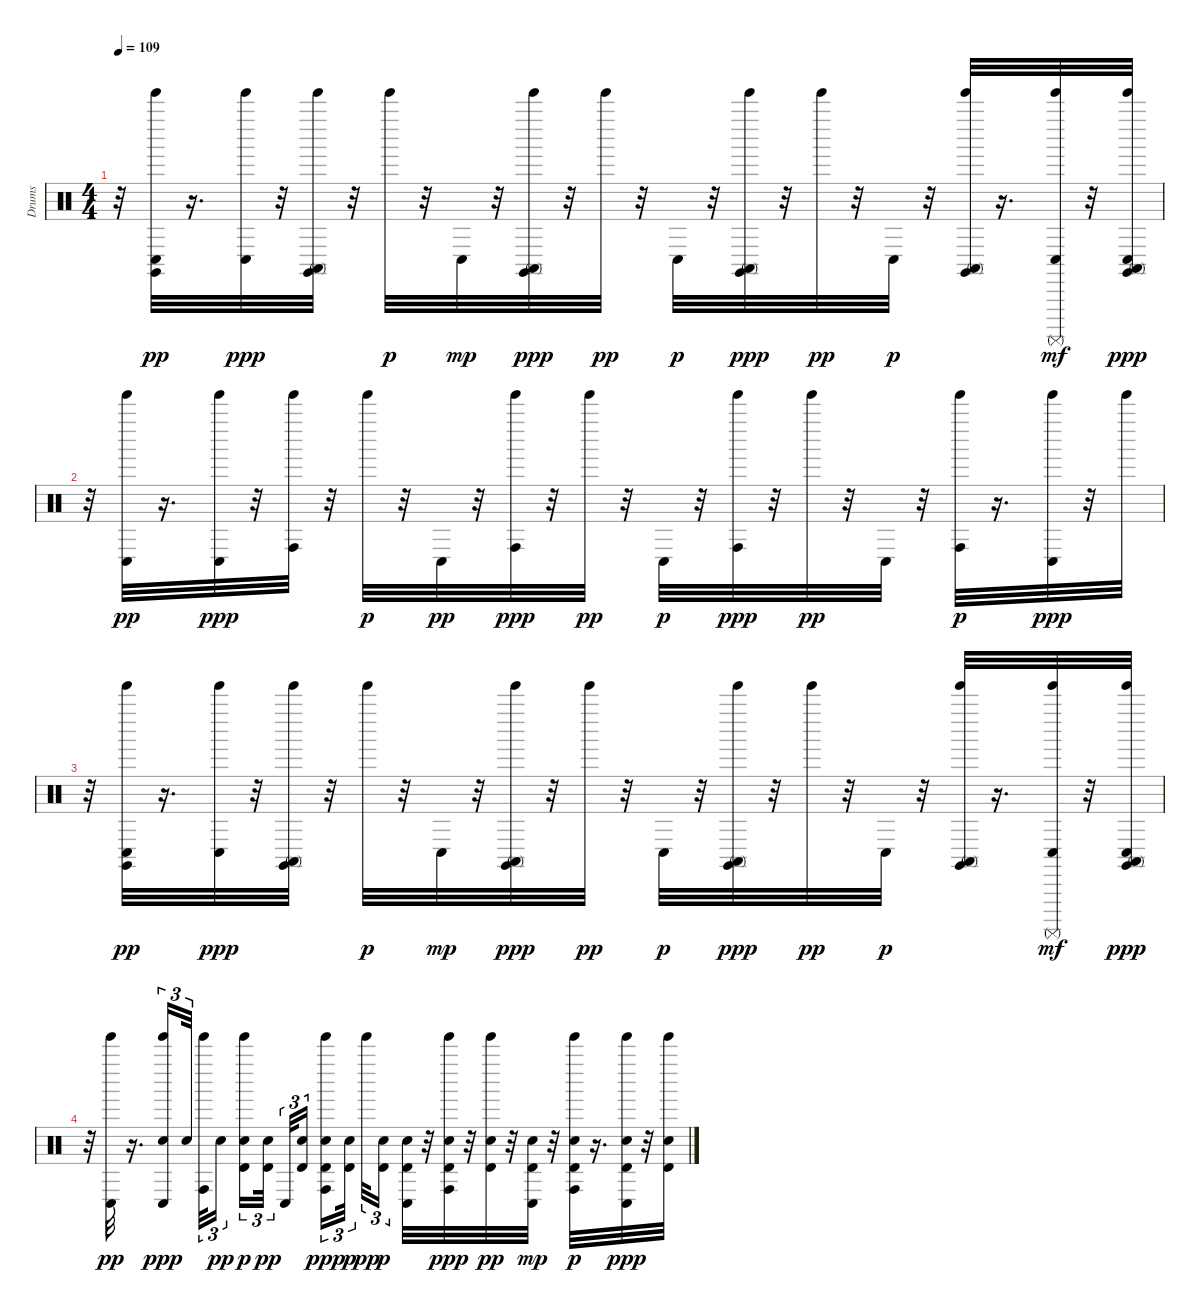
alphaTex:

\track ("Drums" "Drums") {instrument percussion}
\staff {score}
\articulation defaults
\ts (4 4)
\tempo 109
\clef neutral
\ks c
r.32{dy ppp} ("Conga low (hit)" "Claves (hit)" "Tinkle Bell (hit)").32{dy pp} r.16{d} ("Conga low (hit)" "Tinkle Bell (hit)").32{dy ppp} r.32 ("Conga high (mute)" "Claves (hit)" "Tinkle Bell (hit)").32 r.32 "Tinkle Bell (hit)".32{dy p} r.32 "Conga low (hit)".32{dy mp} r.32 ("Conga high (mute)" "Claves (hit)" "Tinkle Bell (hit)").32{dy ppp} r.32 "Tinkle Bell (hit)".32{dy pp} r.32 "Conga low (hit)".32{dy p} r.32 ("Conga high (mute)" "Claves (hit)" "Tinkle Bell (hit)").32{dy ppp} r.32 "Tinkle Bell (hit)".32{dy pp} r.32 "Conga low (hit)".32{dy p} r.32 ("Conga high (mute)" "Claves (hit)" "Tinkle Bell (hit)").32 r.16{d} ("Conga low (hit)" "Tinkle Bell (hit)" "Surdo (mute)").32{dy mf} r.32 ("Conga high (mute)" "Conga low (hit)" "Claves (hit)" "Tinkle Bell (hit)").32{dy ppp} |
r.32 ("Conga low (hit)" "Tinkle Bell (hit)").32{dy pp} r.16{d} ("Conga low (hit)" "Tinkle Bell (hit)").32{dy ppp} r.32 ("Conga high (hit)" "Tinkle Bell (hit)").32 r.32 "Tinkle Bell (hit)".32{dy p} r.32 "Conga low (hit)".32{dy pp} r.32 ("Conga high (hit)" "Tinkle Bell (hit)").32{dy ppp} r.32 "Tinkle Bell (hit)".32{dy pp} r.32 "Conga low (hit)".32{dy p} r.32 ("Conga high (hit)" "Tinkle Bell (hit)").32{dy ppp} r.32 "Tinkle Bell (hit)".32{dy pp} r.32 "Conga low (hit)".32 r.32 ("Conga high (hit)" "Tinkle Bell (hit)").32{dy p} r.16{d} ("Conga low (hit)" "Tinkle Bell (hit)").32{dy ppp} r.32 "Tinkle Bell (hit)".32 |
r.32 ("Conga low (hit)" "Claves (hit)" "Tinkle Bell (hit)").32{dy pp} r.16{d} ("Conga low (hit)" "Tinkle Bell (hit)").32{dy ppp} r.32 ("Conga high (mute)" "Claves (hit)" "Tinkle Bell (hit)").32 r.32 "Tinkle Bell (hit)".32{dy p} r.32 "Conga low (hit)".32{dy mp} r.32 ("Conga high (mute)" "Claves (hit)" "Tinkle Bell (hit)").32{dy ppp} r.32 "Tinkle Bell (hit)".32{dy pp} r.32 "Conga low (hit)".32{dy p} r.32 ("Conga high (mute)" "Claves (hit)" "Tinkle Bell (hit)").32{dy ppp} r.32 "Tinkle Bell (hit)".32{dy pp} r.32 "Conga low (hit)".32{dy p} r.32 ("Conga high (mute)" "Claves (hit)" "Tinkle Bell (hit)").32 r.16{d} ("Conga low (hit)" "Tinkle Bell (hit)" "Surdo (mute)").32{dy mf} r.32 ("Conga high (mute)" "Conga low (hit)" "Claves (hit)" "Tinkle Bell (hit)").32{dy ppp} |
r.32 ("Conga low (hit)" "Tinkle Bell (hit)").32{dy pp} r.16{d} ("Electric Snare (hit)" "Conga low (hit)" "Tinkle Bell (hit)").16{tu (3 2) dy ppp} "Electric Snare (hit)".32{tu (3 2) beam splitsecondary} ("Conga high (hit)" "Tinkle Bell (hit)").32{tu (3 2)} "Electric Snare (hit)".16{tu (3 2) dy pp} ("Electric Snare (hit)" "Timbale high (hit)" "Tinkle Bell (hit)").16{tu (3 2) dy p} ("Electric Snare (hit)" "Timbale high (hit)").32{tu (3 2) dy pp beam splitsecondary} "Conga low (hit)".32{tu (3 2)} ("Electric Snare (hit)" "Timbale high (hit)").16{tu (3 2) beam splitsecondary} ("Electric Snare (hit)" "Conga high (hit)" "Timbale high (hit)" "Tinkle Bell (hit)").16{tu (3 2) dy ppp} ("Electric Snare (hit)" "Timbale high (hit)").32{tu (3 2) dy p beam splitsecondary} "Tinkle Bell (hit)".32{tu (3 2) dy pp} ("Electric Snare (hit)" "Timbale high (hit)").16{tu (3 2) dy p} ("Electric Snare (hit)" "Conga low (hit)" "Timbale high (hit)").32 r.32 ("Electric Snare (hit)" "Conga high (hit)" "Timbale high (hit)" "Tinkle Bell (hit)").32{dy ppp} r.32 ("Electric Snare (hit)" "Timbale high (hit)" "Tinkle Bell (hit)").32{dy pp} r.32 ("Electric Snare (hit)" "Conga low (hit)" "Timbale high (hit)").32{dy mp} r.32 ("Electric Snare (hit)" "Conga high (hit)" "Timbale high (hit)" "Tinkle Bell (hit)").32{dy p} r.16{d} ("Electric Snare (hit)" "Conga low (hit)" "Timbale high (hit)" "Tinkle Bell (hit)").32{dy ppp} r.32 ("Electric Snare (hit)" "Timbale high (hit)" "Tinkle Bell (hit)").32
